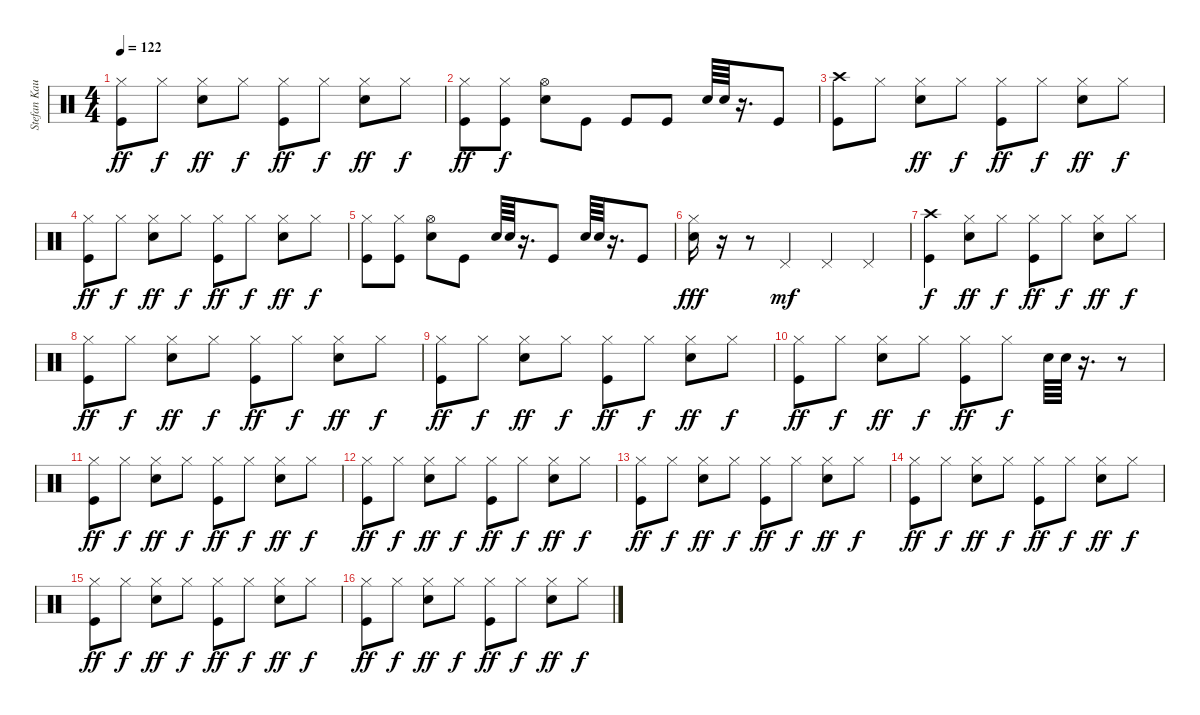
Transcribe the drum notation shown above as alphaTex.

\track ("Stefan Kaufmann" "Stefan Kau") {instrument percussion}
\staff {score}
\articulation defaults
\ts (4 4)
\tempo 122
\clef neutral
\ks c
("Hi-Hat (closed)" "Kick (hit)").8{dy ff} "Hi-Hat (closed)".8{dy f} ("Hi-Hat (closed)" "Snare (hit) 2").8{dy ff} "Hi-Hat (closed)".8{dy f} ("Hi-Hat (closed)" "Kick (hit)").8{dy ff} "Hi-Hat (closed)".8{dy f} ("Hi-Hat (closed)" "Snare (hit) 2").8{dy ff} "Hi-Hat (closed)".8{dy f} |
("Hi-Hat (closed)" "Kick (hit)").8{dy ff} ("Hi-Hat (closed)" "Kick (hit)").8{dy f} ("Hi-Hat (open)" "Snare (hit) 2").8 "Kick (hit)".8 "Kick (hit)".8 "Kick (hit)".8 "Snare (hit) 2".64 "Snare (hit) 2".64 r.16{d} "Kick (hit)".8 |
("Crash high (hit)" "Kick (hit)").8 "Hi-Hat (closed)".8 ("Hi-Hat (closed)" "Snare (hit) 2").8{dy ff} "Hi-Hat (closed)".8{dy f} ("Hi-Hat (closed)" "Kick (hit)").8{dy ff} "Hi-Hat (closed)".8{dy f} ("Hi-Hat (closed)" "Snare (hit) 2").8{dy ff} "Hi-Hat (closed)".8{dy f} |
("Hi-Hat (closed)" "Kick (hit)").8{dy ff} "Hi-Hat (closed)".8{dy f} ("Hi-Hat (closed)" "Snare (hit) 2").8{dy ff} "Hi-Hat (closed)".8{dy f} ("Hi-Hat (closed)" "Kick (hit)").8{dy ff} "Hi-Hat (closed)".8{dy f} ("Hi-Hat (closed)" "Snare (hit) 2").8{dy ff} "Hi-Hat (closed)".8{dy f} |
("Hi-Hat (closed)" "Kick (hit)").8 ("Hi-Hat (closed)" "Kick (hit)").8 ("Hi-Hat (open)" "Snare (hit) 2").8 "Kick (hit)".8 "Snare (hit) 2".64 "Snare (hit) 2".64 r.16{d} "Kick (hit)".8 "Snare (hit) 2".64 "Snare (hit) 2".64 r.16{d} "Kick (hit)".8 |
("Hi-Hat (closed)" "Snare (hit) 2").16{dy fff} r.16 r.8 "Pedal Hi-Hat (hit)".4{dy mf} "Pedal Hi-Hat (hit)".4 "Pedal Hi-Hat (hit)".4 |
("Crash high (hit)" "Kick (hit)").4{dy f} ("Hi-Hat (closed)" "Snare (hit) 2").8{dy ff} "Hi-Hat (closed)".8{dy f} ("Hi-Hat (closed)" "Kick (hit)").8{dy ff} "Hi-Hat (closed)".8{dy f} ("Hi-Hat (closed)" "Snare (hit) 2").8{dy ff} "Hi-Hat (closed)".8{dy f} |
("Hi-Hat (closed)" "Kick (hit)").8{dy ff} "Hi-Hat (closed)".8{dy f} ("Hi-Hat (closed)" "Snare (hit) 2").8{dy ff} "Hi-Hat (closed)".8{dy f} ("Hi-Hat (closed)" "Kick (hit)").8{dy ff} "Hi-Hat (closed)".8{dy f} ("Hi-Hat (closed)" "Snare (hit) 2").8{dy ff} "Hi-Hat (closed)".8{dy f} |
("Hi-Hat (closed)" "Kick (hit)").8{dy ff} "Hi-Hat (closed)".8{dy f} ("Hi-Hat (closed)" "Snare (hit) 2").8{dy ff} "Hi-Hat (closed)".8{dy f} ("Hi-Hat (closed)" "Kick (hit)").8{dy ff} "Hi-Hat (closed)".8{dy f} ("Hi-Hat (closed)" "Snare (hit) 2").8{dy ff} "Hi-Hat (closed)".8{dy f} |
("Hi-Hat (closed)" "Kick (hit)").8{dy ff} "Hi-Hat (closed)".8{dy f} ("Hi-Hat (closed)" "Snare (hit) 2").8{dy ff} "Hi-Hat (closed)".8{dy f} ("Hi-Hat (closed)" "Kick (hit)").8{dy ff} "Hi-Hat (closed)".8{dy f} "Snare (hit) 2".64 "Snare (hit) 2".64 r.16{d} r.8 |
("Hi-Hat (closed)" "Kick (hit)").8{dy ff} "Hi-Hat (closed)".8{dy f} ("Hi-Hat (closed)" "Snare (hit) 2").8{dy ff} "Hi-Hat (closed)".8{dy f} ("Hi-Hat (closed)" "Kick (hit)").8{dy ff} "Hi-Hat (closed)".8{dy f} ("Hi-Hat (closed)" "Snare (hit) 2").8{dy ff} "Hi-Hat (closed)".8{dy f} |
("Hi-Hat (closed)" "Kick (hit)").8{dy ff} "Hi-Hat (closed)".8{dy f} ("Hi-Hat (closed)" "Snare (hit) 2").8{dy ff} "Hi-Hat (closed)".8{dy f} ("Hi-Hat (closed)" "Kick (hit)").8{dy ff} "Hi-Hat (closed)".8{dy f} ("Hi-Hat (closed)" "Snare (hit) 2").8{dy ff} "Hi-Hat (closed)".8{dy f} |
("Hi-Hat (closed)" "Kick (hit)").8{dy ff} "Hi-Hat (closed)".8{dy f} ("Hi-Hat (closed)" "Snare (hit) 2").8{dy ff} "Hi-Hat (closed)".8{dy f} ("Hi-Hat (closed)" "Kick (hit)").8{dy ff} "Hi-Hat (closed)".8{dy f} ("Hi-Hat (closed)" "Snare (hit) 2").8{dy ff} "Hi-Hat (closed)".8{dy f} |
("Hi-Hat (closed)" "Kick (hit)").8{dy ff} "Hi-Hat (closed)".8{dy f} ("Hi-Hat (closed)" "Snare (hit) 2").8{dy ff} "Hi-Hat (closed)".8{dy f} ("Hi-Hat (closed)" "Kick (hit)").8{dy ff} "Hi-Hat (closed)".8{dy f} ("Hi-Hat (closed)" "Snare (hit) 2").8{dy ff} "Hi-Hat (closed)".8{dy f} |
("Hi-Hat (closed)" "Kick (hit)").8{dy ff} "Hi-Hat (closed)".8{dy f} ("Hi-Hat (closed)" "Snare (hit) 2").8{dy ff} "Hi-Hat (closed)".8{dy f} ("Hi-Hat (closed)" "Kick (hit)").8{dy ff} "Hi-Hat (closed)".8{dy f} ("Hi-Hat (closed)" "Snare (hit) 2").8{dy ff} "Hi-Hat (closed)".8{dy f} |
("Hi-Hat (closed)" "Kick (hit)").8{dy ff} "Hi-Hat (closed)".8{dy f} ("Hi-Hat (closed)" "Snare (hit) 2").8{dy ff} "Hi-Hat (closed)".8{dy f} ("Hi-Hat (closed)" "Kick (hit)").8{dy ff} "Hi-Hat (closed)".8{dy f} ("Hi-Hat (closed)" "Snare (hit) 2").8{dy ff} "Hi-Hat (closed)".8{dy f}
